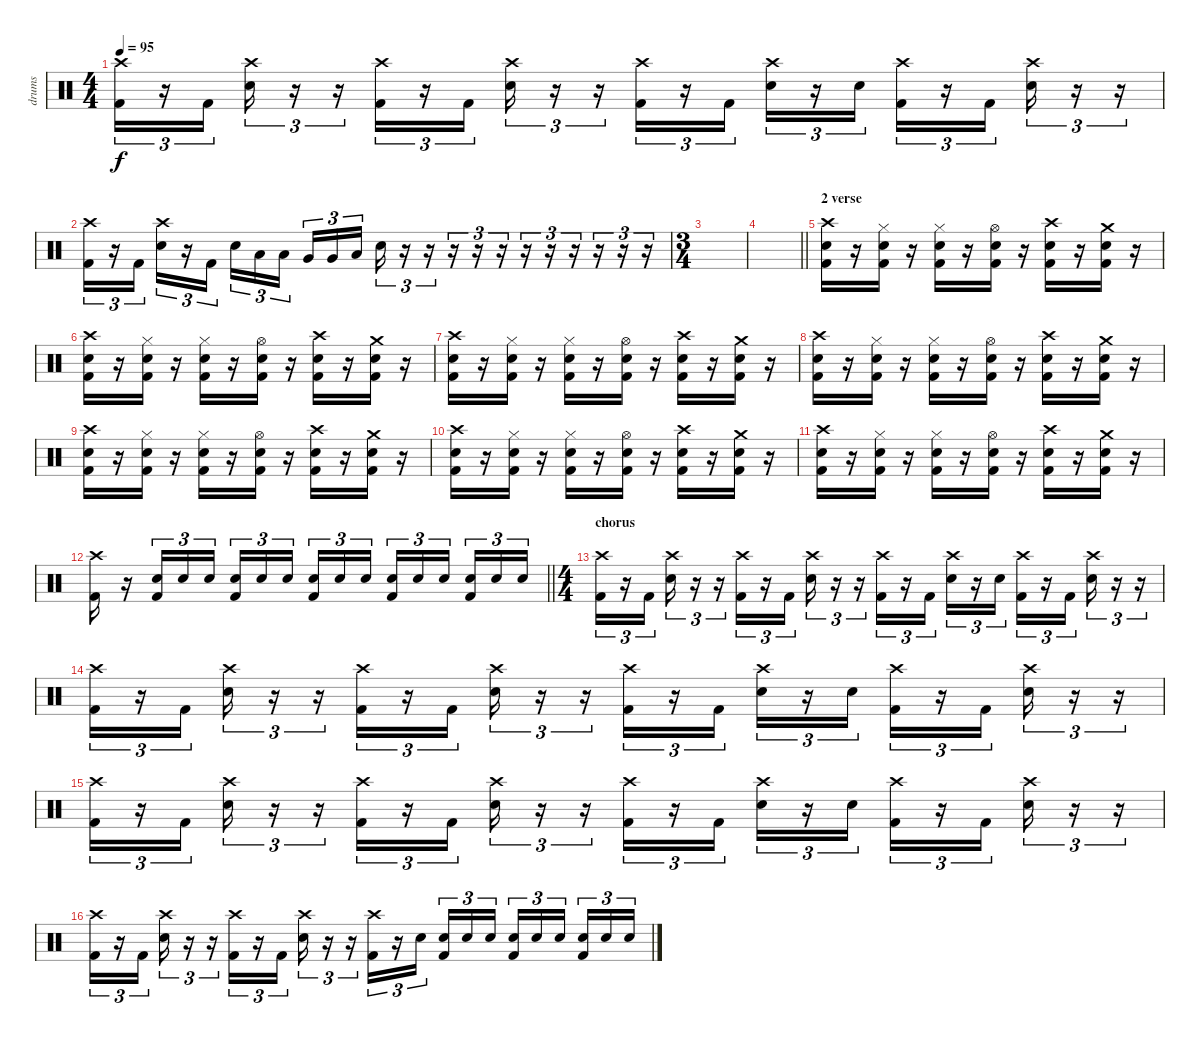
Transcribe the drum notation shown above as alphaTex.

\track ("drums" "drums") {instrument percussion}
\staff {score}
\articulation defaults
\ts (4 4)
\tempo 95
\clef neutral
\ks c
("Crash high (hit)" "Kick (hit) 2").16{tu (3 2) dy f} r.16{tu (3 2)} "Kick (hit) 2".16{tu (3 2)} ("Crash high (hit)" "Electric Snare (hit)").16{tu (3 2)} r.16{tu (3 2)} r.16{tu (3 2)} ("Crash high (hit)" "Kick (hit) 2").16{tu (3 2)} r.16{tu (3 2)} "Kick (hit) 2".16{tu (3 2)} ("Crash high (hit)" "Electric Snare (hit)").16{tu (3 2)} r.16{tu (3 2)} r.16{tu (3 2)} ("Crash high (hit)" "Kick (hit) 2").16{tu (3 2)} r.16{tu (3 2)} "Kick (hit) 2".16{tu (3 2)} ("Crash high (hit)" "Electric Snare (hit)").16{tu (3 2)} r.16{tu (3 2)} "Electric Snare (hit)".16{tu (3 2)} ("Crash high (hit)" "Kick (hit) 2").16{tu (3 2)} r.16{tu (3 2)} "Kick (hit) 2".16{tu (3 2)} ("Crash high (hit)" "Electric Snare (hit)").16{tu (3 2)} r.16{tu (3 2)} r.16{tu (3 2)} |
("Crash high (hit)" "Kick (hit) 2").16{tu (3 2)} r.16{tu (3 2)} "Kick (hit) 2".16{tu (3 2)} ("Crash high (hit)" "Electric Snare (hit)").16{tu (3 2)} r.16{tu (3 2)} "Kick (hit) 2".16{tu (3 2)} "Electric Snare (hit)".16{tu (3 2)} "Low Floor Tom (hit)".16{tu (3 2)} "Low Tom (hit)".16{tu (3 2) beam splitsecondary} "Very Low Tom (hit)".16{tu (3 2)} "Very Low Tom (hit)".16{tu (3 2)} "Low Floor Tom (hit)".16{tu (3 2)} "Electric Snare (hit)".16{tu (3 2)} r.16{tu (3 2)} r.16{tu (3 2)} r.16{tu (3 2)} r.16{tu (3 2)} r.16{tu (3 2)} r.16{tu (3 2)} r.16{tu (3 2)} r.16{tu (3 2)} r.16{tu (3 2)} r.16{tu (3 2)} r.16{tu (3 2)} |
\ts (3 4)
|
\barLineRight lightlight
|
\section ("" "2 verse")
("Crash high (hit)" "Electric Snare (hit)" "Kick (hit) 2").16 r.16 ("Hi-Hat (closed)" "Electric Snare (hit)" "Kick (hit) 2").16 r.16 ("Hi-Hat (closed)" "Electric Snare (hit)" "Kick (hit) 2").16 r.16 ("Hi-Hat (open)" "Electric Snare (hit)" "Kick (hit) 2").16 r.16 ("Crash high (hit)" "Electric Snare (hit)" "Kick (hit) 2").16 r.16 ("Crash medium (hit)" "Electric Snare (hit)" "Kick (hit) 2").16 r.16 |
("Crash high (hit)" "Electric Snare (hit)" "Kick (hit) 2").16 r.16 ("Hi-Hat (closed)" "Electric Snare (hit)" "Kick (hit) 2").16 r.16 ("Hi-Hat (closed)" "Electric Snare (hit)" "Kick (hit) 2").16 r.16 ("Hi-Hat (open)" "Electric Snare (hit)" "Kick (hit) 2").16 r.16 ("Crash high (hit)" "Electric Snare (hit)" "Kick (hit) 2").16 r.16 ("Crash medium (hit)" "Electric Snare (hit)" "Kick (hit) 2").16 r.16 |
("Crash high (hit)" "Electric Snare (hit)" "Kick (hit) 2").16 r.16 ("Hi-Hat (closed)" "Electric Snare (hit)" "Kick (hit) 2").16 r.16 ("Hi-Hat (closed)" "Electric Snare (hit)" "Kick (hit) 2").16 r.16 ("Hi-Hat (open)" "Electric Snare (hit)" "Kick (hit) 2").16 r.16 ("Crash high (hit)" "Electric Snare (hit)" "Kick (hit) 2").16 r.16 ("Crash medium (hit)" "Electric Snare (hit)" "Kick (hit) 2").16 r.16 |
("Crash high (hit)" "Electric Snare (hit)" "Kick (hit) 2").16 r.16 ("Hi-Hat (closed)" "Electric Snare (hit)" "Kick (hit) 2").16 r.16 ("Hi-Hat (closed)" "Electric Snare (hit)" "Kick (hit) 2").16 r.16 ("Hi-Hat (open)" "Electric Snare (hit)" "Kick (hit) 2").16 r.16 ("Crash high (hit)" "Electric Snare (hit)" "Kick (hit) 2").16 r.16 ("Crash medium (hit)" "Electric Snare (hit)" "Kick (hit) 2").16 r.16 |
("Crash high (hit)" "Electric Snare (hit)" "Kick (hit) 2").16 r.16 ("Hi-Hat (closed)" "Electric Snare (hit)" "Kick (hit) 2").16 r.16 ("Hi-Hat (closed)" "Electric Snare (hit)" "Kick (hit) 2").16 r.16 ("Hi-Hat (open)" "Electric Snare (hit)" "Kick (hit) 2").16 r.16 ("Crash high (hit)" "Electric Snare (hit)" "Kick (hit) 2").16 r.16 ("Crash medium (hit)" "Electric Snare (hit)" "Kick (hit) 2").16 r.16 |
("Crash high (hit)" "Electric Snare (hit)" "Kick (hit) 2").16 r.16 ("Hi-Hat (closed)" "Electric Snare (hit)" "Kick (hit) 2").16 r.16 ("Hi-Hat (closed)" "Electric Snare (hit)" "Kick (hit) 2").16 r.16 ("Hi-Hat (open)" "Electric Snare (hit)" "Kick (hit) 2").16 r.16 ("Crash high (hit)" "Electric Snare (hit)" "Kick (hit) 2").16 r.16 ("Crash medium (hit)" "Electric Snare (hit)" "Kick (hit) 2").16 r.16 |
("Crash high (hit)" "Electric Snare (hit)" "Kick (hit) 2").16 r.16 ("Hi-Hat (closed)" "Electric Snare (hit)" "Kick (hit) 2").16 r.16 ("Hi-Hat (closed)" "Electric Snare (hit)" "Kick (hit) 2").16 r.16 ("Hi-Hat (open)" "Electric Snare (hit)" "Kick (hit) 2").16 r.16 ("Crash high (hit)" "Electric Snare (hit)" "Kick (hit) 2").16 r.16 ("Crash medium (hit)" "Electric Snare (hit)" "Kick (hit) 2").16 r.16 |
\barLineRight lightlight
("Crash high (hit)" "Kick (hit) 2").16 r.16 ("Electric Snare (hit)" "Kick (hit) 2").16{tu (3 2)} "Electric Snare (hit)".16{tu (3 2)} "Electric Snare (hit)".16{tu (3 2)} ("Electric Snare (hit)" "Kick (hit) 2").16{tu (3 2)} "Electric Snare (hit)".16{tu (3 2)} "Electric Snare (hit)".16{tu (3 2) beam splitsecondary} ("Electric Snare (hit)" "Kick (hit) 2").16{tu (3 2)} "Electric Snare (hit)".16{tu (3 2)} "Electric Snare (hit)".16{tu (3 2)} ("Electric Snare (hit)" "Kick (hit) 2").16{tu (3 2)} "Electric Snare (hit)".16{tu (3 2)} "Electric Snare (hit)".16{tu (3 2) beam splitsecondary} ("Electric Snare (hit)" "Kick (hit) 2").16{tu (3 2)} "Electric Snare (hit)".16{tu (3 2)} "Electric Snare (hit)".16{tu (3 2)} |
\ts (4 4)
\section ("" "chorus")
("Crash high (hit)" "Kick (hit) 2").16{tu (3 2)} r.16{tu (3 2)} "Kick (hit) 2".16{tu (3 2)} ("Crash high (hit)" "Electric Snare (hit)").16{tu (3 2)} r.16{tu (3 2)} r.16{tu (3 2)} ("Crash high (hit)" "Kick (hit) 2").16{tu (3 2)} r.16{tu (3 2)} "Kick (hit) 2".16{tu (3 2)} ("Crash high (hit)" "Electric Snare (hit)").16{tu (3 2)} r.16{tu (3 2)} r.16{tu (3 2)} ("Crash high (hit)" "Kick (hit) 2").16{tu (3 2)} r.16{tu (3 2)} "Kick (hit) 2".16{tu (3 2)} ("Crash high (hit)" "Electric Snare (hit)").16{tu (3 2)} r.16{tu (3 2)} "Electric Snare (hit)".16{tu (3 2)} ("Crash high (hit)" "Kick (hit) 2").16{tu (3 2)} r.16{tu (3 2)} "Kick (hit) 2".16{tu (3 2)} ("Crash high (hit)" "Electric Snare (hit)").16{tu (3 2)} r.16{tu (3 2)} r.16{tu (3 2)} |
("Crash high (hit)" "Kick (hit) 2").16{tu (3 2)} r.16{tu (3 2)} "Kick (hit) 2".16{tu (3 2)} ("Crash high (hit)" "Electric Snare (hit)").16{tu (3 2)} r.16{tu (3 2)} r.16{tu (3 2)} ("Crash high (hit)" "Kick (hit) 2").16{tu (3 2)} r.16{tu (3 2)} "Kick (hit) 2".16{tu (3 2)} ("Crash high (hit)" "Electric Snare (hit)").16{tu (3 2)} r.16{tu (3 2)} r.16{tu (3 2)} ("Crash high (hit)" "Kick (hit) 2").16{tu (3 2)} r.16{tu (3 2)} "Kick (hit) 2".16{tu (3 2)} ("Crash high (hit)" "Electric Snare (hit)").16{tu (3 2)} r.16{tu (3 2)} "Electric Snare (hit)".16{tu (3 2)} ("Crash high (hit)" "Kick (hit) 2").16{tu (3 2)} r.16{tu (3 2)} "Kick (hit) 2".16{tu (3 2)} ("Crash high (hit)" "Electric Snare (hit)").16{tu (3 2)} r.16{tu (3 2)} r.16{tu (3 2)} |
("Crash high (hit)" "Kick (hit) 2").16{tu (3 2)} r.16{tu (3 2)} "Kick (hit) 2".16{tu (3 2)} ("Crash high (hit)" "Electric Snare (hit)").16{tu (3 2)} r.16{tu (3 2)} r.16{tu (3 2)} ("Crash high (hit)" "Kick (hit) 2").16{tu (3 2)} r.16{tu (3 2)} "Kick (hit) 2".16{tu (3 2)} ("Crash high (hit)" "Electric Snare (hit)").16{tu (3 2)} r.16{tu (3 2)} r.16{tu (3 2)} ("Crash high (hit)" "Kick (hit) 2").16{tu (3 2)} r.16{tu (3 2)} "Kick (hit) 2".16{tu (3 2)} ("Crash high (hit)" "Electric Snare (hit)").16{tu (3 2)} r.16{tu (3 2)} "Electric Snare (hit)".16{tu (3 2)} ("Crash high (hit)" "Kick (hit) 2").16{tu (3 2)} r.16{tu (3 2)} "Kick (hit) 2".16{tu (3 2)} ("Crash high (hit)" "Electric Snare (hit)").16{tu (3 2)} r.16{tu (3 2)} r.16{tu (3 2)} |
("Crash high (hit)" "Kick (hit) 2").16{tu (3 2)} r.16{tu (3 2)} "Kick (hit) 2".16{tu (3 2)} ("Crash high (hit)" "Electric Snare (hit)").16{tu (3 2)} r.16{tu (3 2)} r.16{tu (3 2)} ("Crash high (hit)" "Kick (hit) 2").16{tu (3 2)} r.16{tu (3 2)} "Kick (hit) 2".16{tu (3 2)} ("Crash high (hit)" "Electric Snare (hit)").16{tu (3 2)} r.16{tu (3 2)} r.16{tu (3 2)} ("Crash high (hit)" "Kick (hit) 2").16{tu (3 2)} r.16{tu (3 2)} "Electric Snare (hit)".16{tu (3 2) beam splitsecondary} ("Electric Snare (hit)" "Kick (hit) 2").16{tu (3 2)} "Electric Snare (hit)".16{tu (3 2)} "Electric Snare (hit)".16{tu (3 2)} ("Electric Snare (hit)" "Kick (hit) 2").16{tu (3 2)} "Electric Snare (hit)".16{tu (3 2)} "Electric Snare (hit)".16{tu (3 2) beam splitsecondary} ("Electric Snare (hit)" "Kick (hit) 2").16{tu (3 2)} "Electric Snare (hit)".16{tu (3 2)} "Electric Snare (hit)".16{tu (3 2)}
